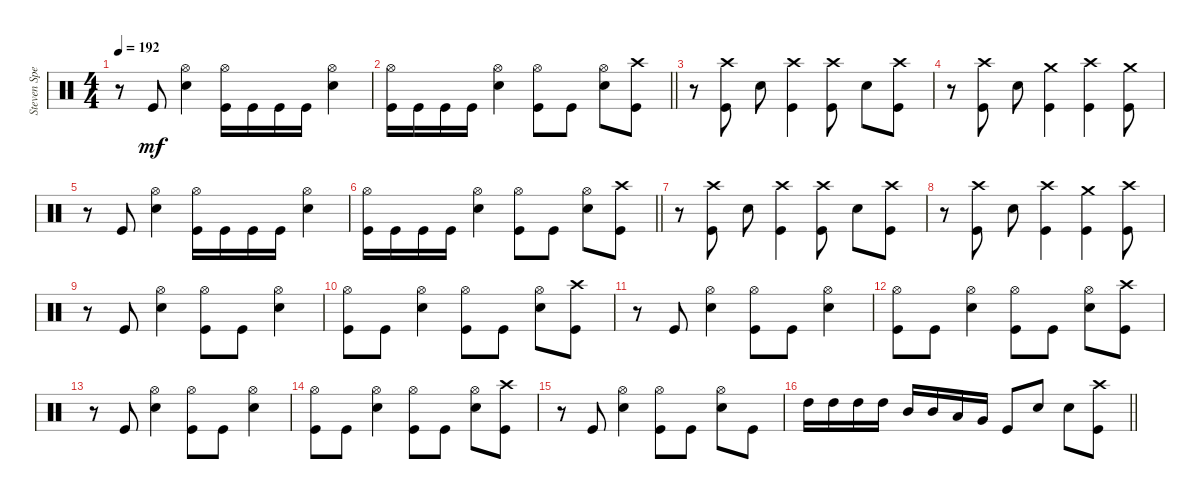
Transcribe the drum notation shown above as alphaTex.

\track ("Steven Spence" "Steven Spe") {instrument percussion}
\staff {score}
\articulation defaults
\ts (4 4)
\tempo 192
\clef neutral
\ks c
r.8{dy mf} "Kick (hit)".8 ("Hi-Hat (open)" "Electric Snare (hit)").4 ("Hi-Hat (open)" "Kick (hit)").16 "Kick (hit)".16 "Kick (hit)".16 "Kick (hit)".16 ("Hi-Hat (open)" "Electric Snare (hit)").4 |
\barLineRight lightlight
("Hi-Hat (open)" "Kick (hit)").16 "Kick (hit)".16 "Kick (hit)".16 "Kick (hit)".16 ("Hi-Hat (open)" "Electric Snare (hit)").4 ("Hi-Hat (open)" "Kick (hit)").8 "Kick (hit)".8 ("Hi-Hat (open)" "Electric Snare (hit)").8 ("Crash high (hit)" "Kick (hit)").8 |
r.8 ("Crash high (hit)" "Kick (hit)").8 "Electric Snare (hit)".8 ("Crash high (hit)" "Kick (hit)").4 ("Crash high (hit)" "Kick (hit)").8 "Electric Snare (hit)".8 ("Crash high (hit)" "Kick (hit)").8 |
r.8 ("Crash high (hit)" "Kick (hit)").8 "Electric Snare (hit)".8 ("Crash medium (hit)" "Kick (hit)").4 ("Crash high (hit)" "Kick (hit)").4 ("Crash medium (hit)" "Kick (hit)").8 |
r.8 "Kick (hit)".8 ("Hi-Hat (open)" "Electric Snare (hit)").4 ("Hi-Hat (open)" "Kick (hit)").16 "Kick (hit)".16 "Kick (hit)".16 "Kick (hit)".16 ("Hi-Hat (open)" "Electric Snare (hit)").4 |
\barLineRight lightlight
("Hi-Hat (open)" "Kick (hit)").16 "Kick (hit)".16 "Kick (hit)".16 "Kick (hit)".16 ("Hi-Hat (open)" "Electric Snare (hit)").4 ("Hi-Hat (open)" "Kick (hit)").8 "Kick (hit)".8 ("Hi-Hat (open)" "Electric Snare (hit)").8 ("Crash high (hit)" "Kick (hit)").8 |
r.8 ("Crash high (hit)" "Kick (hit)").8 "Electric Snare (hit)".8 ("Crash high (hit)" "Kick (hit)").4 ("Crash high (hit)" "Kick (hit)").8 "Electric Snare (hit)".8 ("Crash high (hit)" "Kick (hit)").8 |
r.8 ("Crash high (hit)" "Kick (hit)").8 "Electric Snare (hit)".8 ("Crash high (hit)" "Kick (hit)").4 ("Crash medium (hit)" "Kick (hit)").4 ("Crash high (hit)" "Kick (hit)").8 |
r.8 "Kick (hit)".8 ("Hi-Hat (open)" "Electric Snare (hit)").4 ("Hi-Hat (open)" "Kick (hit)").8 "Kick (hit)".8 ("Hi-Hat (open)" "Electric Snare (hit)").4 |
("Hi-Hat (open)" "Kick (hit)").8 "Kick (hit)".8 ("Hi-Hat (open)" "Electric Snare (hit)").4 ("Hi-Hat (open)" "Kick (hit)").8 "Kick (hit)".8 ("Hi-Hat (open)" "Electric Snare (hit)").8 ("Crash high (hit)" "Kick (hit)").8 |
r.8 "Kick (hit)".8 ("Hi-Hat (open)" "Electric Snare (hit)").4 ("Hi-Hat (open)" "Kick (hit)").8 "Kick (hit)".8 ("Hi-Hat (open)" "Electric Snare (hit)").4 |
("Hi-Hat (open)" "Kick (hit)").8 "Kick (hit)".8 ("Hi-Hat (open)" "Electric Snare (hit)").4 ("Hi-Hat (open)" "Kick (hit)").8 "Kick (hit)".8 ("Hi-Hat (open)" "Electric Snare (hit)").8 ("Crash high (hit)" "Kick (hit)").8 |
r.8 "Kick (hit)".8 ("Hi-Hat (open)" "Electric Snare (hit)").4 ("Hi-Hat (open)" "Kick (hit)").8 "Kick (hit)".8 ("Hi-Hat (open)" "Electric Snare (hit)").4 |
("Hi-Hat (open)" "Kick (hit)").8 "Kick (hit)".8 ("Hi-Hat (open)" "Electric Snare (hit)").4 ("Hi-Hat (open)" "Kick (hit)").8 "Kick (hit)".8 ("Hi-Hat (open)" "Electric Snare (hit)").8 ("Crash high (hit)" "Kick (hit)").8 |
r.8 "Kick (hit)".8 ("Hi-Hat (open)" "Electric Snare (hit)").4 ("Hi-Hat (open)" "Kick (hit)").8 "Kick (hit)".8 ("Hi-Hat (open)" "Electric Snare (hit)").8 "Kick (hit)".8 |
\barLineRight lightlight "High Tom (hit)".16 "High Tom (hit)".16 "High Tom (hit)".16 "High Tom (hit)".16 "Mid Tom (hit)".16 "Mid Tom (hit)".16 "Low Tom (hit)".16 "Very Low Tom (hit)".16 "Kick (hit)".8 "Electric Snare (hit)".8 "Electric Snare (hit)".8
("Crash high (hit)" "Kick (hit)").8
